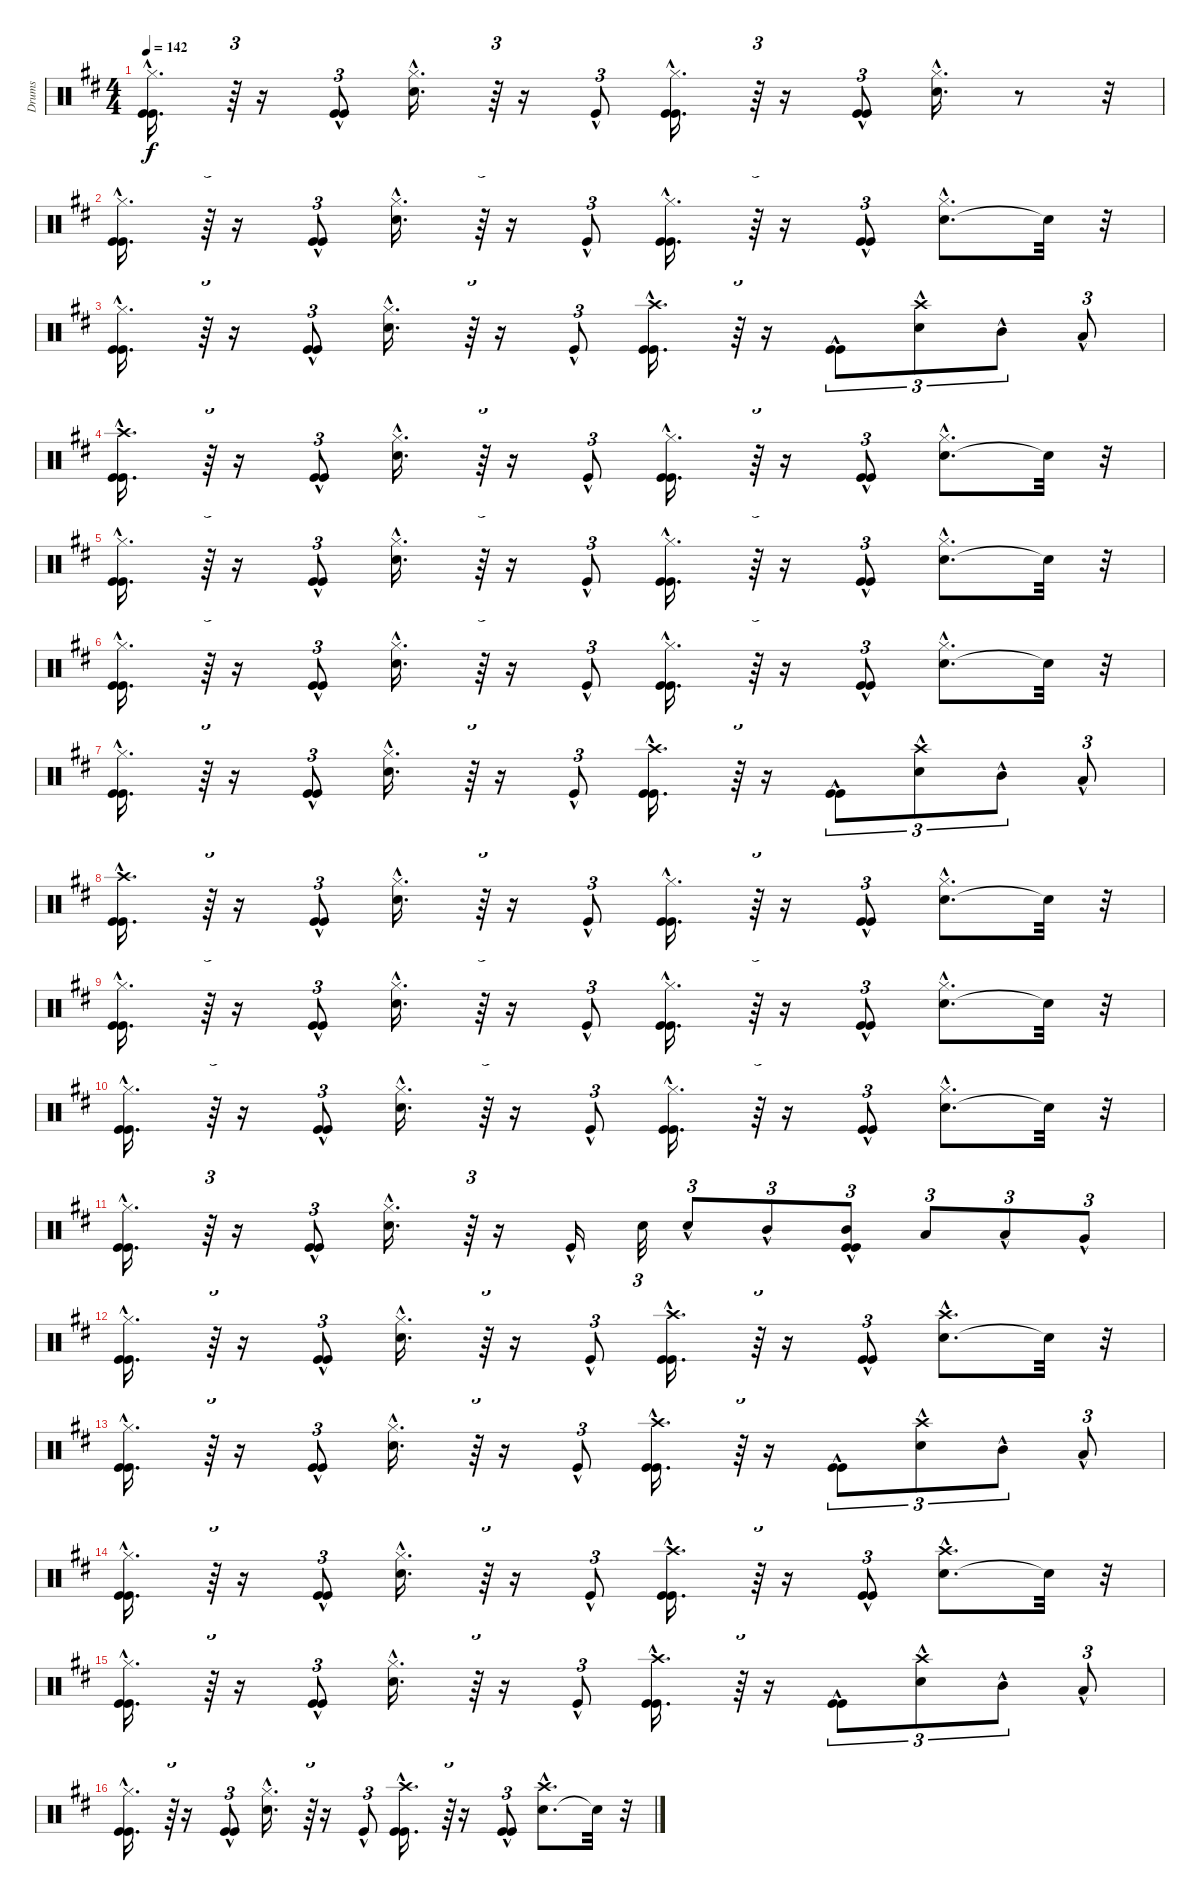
\track ("Drums" "Drums") {instrument percussion}
\staff {score}
\articulation defaults
\ts (4 4)
\tempo 142
\clef neutral
\ks bminor
("Kick (hit)"{hac} "Kick (hit)"{hac} "Hi-Hat (closed)"{hac}).16{d dy f} r.64{tu (3 2)} r.16 ("Kick (hit)"{hac} "Kick (hit)"{hac}).8{tu (3 2)} ("Snare (hit) 2"{hac} "Hi-Hat (closed)"{hac}).16{d} r.64{tu (3 2)} r.16 "Kick (hit)"{hac}.8{tu (3 2)} ("Kick (hit)"{hac} "Kick (hit)"{hac} "Hi-Hat (closed)"{hac}).16{d} r.64{tu (3 2)} r.16 ("Kick (hit)"{hac} "Kick (hit)"{hac}).8{tu (3 2)} ("Snare (hit) 2"{hac} "Hi-Hat (closed)"{hac}).16{d} r.8 r.32 |
("Kick (hit)"{hac} "Kick (hit)"{hac} "Hi-Hat (closed)"{hac}).16{d} r.64{tu (3 2)} r.16 ("Kick (hit)"{hac} "Kick (hit)"{hac}).8{tu (3 2)} ("Snare (hit) 2"{hac} "Hi-Hat (closed)"{hac}).16{d} r.64{tu (3 2)} r.16 "Kick (hit)"{hac}.8{tu (3 2)} ("Kick (hit)"{hac} "Kick (hit)"{hac} "Hi-Hat (closed)"{hac}).16{d} r.64{tu (3 2)} r.16 ("Kick (hit)"{hac} "Kick (hit)"{hac}).8{tu (3 2)} ("Snare (hit) 2"{hac} "Hi-Hat (closed)"{hac}).8{d} "Snare (hit)"{t}.32 r.32 |
("Kick (hit)"{hac} "Kick (hit)"{hac} "Hi-Hat (closed)"{hac}).16{d} r.64{tu (3 2)} r.16 ("Kick (hit)"{hac} "Kick (hit)"{hac}).8{tu (3 2)} ("Snare (hit) 2"{hac} "Hi-Hat (closed)"{hac}).16{d} r.64{tu (3 2)} r.16 "Kick (hit)"{hac}.8{tu (3 2)} ("Kick (hit)"{hac} "Kick (hit)"{hac} "Crash high (hit)"{hac}).16{d} r.64{tu (3 2)} r.16 ("Kick (hit)"{hac} "Kick (hit)"{hac}).8{tu (3 2)} ("Snare (hit) 2"{hac} "Crash high (hit)"{hac}).8{tu (3 2)} "Mid Tom (hit)"{hac}.8{tu (3 2)} "Low Tom (hit)"{hac}.8{tu (3 2)} |
("Kick (hit)"{hac} "Kick (hit)"{hac} "Crash high (hit)"{hac}).16{d} r.64{tu (3 2)} r.16 ("Kick (hit)"{hac} "Kick (hit)"{hac}).8{tu (3 2)} ("Snare (hit) 2"{hac} "Hi-Hat (closed)"{hac}).16{d} r.64{tu (3 2)} r.16 "Kick (hit)"{hac}.8{tu (3 2)} ("Kick (hit)"{hac} "Kick (hit)"{hac} "Hi-Hat (closed)"{hac}).16{d} r.64{tu (3 2)} r.16 ("Kick (hit)"{hac} "Kick (hit)"{hac}).8{tu (3 2)} ("Snare (hit) 2"{hac} "Hi-Hat (closed)"{hac}).8{d} "Snare (hit)"{t}.32 r.32 |
("Kick (hit)"{hac} "Kick (hit)"{hac} "Hi-Hat (closed)"{hac}).16{d} r.64{tu (3 2)} r.16 ("Kick (hit)"{hac} "Kick (hit)"{hac}).8{tu (3 2)} ("Snare (hit) 2"{hac} "Hi-Hat (closed)"{hac}).16{d} r.64{tu (3 2)} r.16 "Kick (hit)"{hac}.8{tu (3 2)} ("Kick (hit)"{hac} "Kick (hit)"{hac} "Hi-Hat (closed)"{hac}).16{d} r.64{tu (3 2)} r.16 ("Kick (hit)"{hac} "Kick (hit)"{hac}).8{tu (3 2)} ("Snare (hit) 2"{hac} "Hi-Hat (closed)"{hac}).8{d} "Snare (hit)"{t}.32 r.32 |
("Kick (hit)"{hac} "Kick (hit)"{hac} "Hi-Hat (closed)"{hac}).16{d} r.64{tu (3 2)} r.16 ("Kick (hit)"{hac} "Kick (hit)"{hac}).8{tu (3 2)} ("Snare (hit) 2"{hac} "Hi-Hat (closed)"{hac}).16{d} r.64{tu (3 2)} r.16 "Kick (hit)"{hac}.8{tu (3 2)} ("Kick (hit)"{hac} "Kick (hit)"{hac} "Hi-Hat (closed)"{hac}).16{d} r.64{tu (3 2)} r.16 ("Kick (hit)"{hac} "Kick (hit)"{hac}).8{tu (3 2)} ("Snare (hit) 2"{hac} "Hi-Hat (closed)"{hac}).8{d} "Snare (hit)"{t}.32 r.32 |
("Kick (hit)"{hac} "Kick (hit)"{hac} "Hi-Hat (closed)"{hac}).16{d} r.64{tu (3 2)} r.16 ("Kick (hit)"{hac} "Kick (hit)"{hac}).8{tu (3 2)} ("Snare (hit) 2"{hac} "Hi-Hat (closed)"{hac}).16{d} r.64{tu (3 2)} r.16 "Kick (hit)"{hac}.8{tu (3 2)} ("Kick (hit)"{hac} "Kick (hit)"{hac} "Crash high (hit)"{hac}).16{d} r.64{tu (3 2)} r.16 ("Kick (hit)"{hac} "Kick (hit)"{hac}).8{tu (3 2)} ("Snare (hit) 2"{hac} "Crash high (hit)"{hac}).8{tu (3 2)} "Mid Tom (hit)"{hac}.8{tu (3 2)} "Low Tom (hit)"{hac}.8{tu (3 2)} |
("Kick (hit)"{hac} "Kick (hit)"{hac} "Crash high (hit)"{hac}).16{d} r.64{tu (3 2)} r.16 ("Kick (hit)"{hac} "Kick (hit)"{hac}).8{tu (3 2)} ("Snare (hit) 2"{hac} "Hi-Hat (closed)"{hac}).16{d} r.64{tu (3 2)} r.16 "Kick (hit)"{hac}.8{tu (3 2)} ("Kick (hit)"{hac} "Kick (hit)"{hac} "Hi-Hat (closed)"{hac}).16{d} r.64{tu (3 2)} r.16 ("Kick (hit)"{hac} "Kick (hit)"{hac}).8{tu (3 2)} ("Snare (hit) 2"{hac} "Hi-Hat (closed)"{hac}).8{d} "Snare (hit)"{t}.32 r.32 |
("Kick (hit)"{hac} "Kick (hit)"{hac} "Hi-Hat (closed)"{hac}).16{d} r.64{tu (3 2)} r.16 ("Kick (hit)"{hac} "Kick (hit)"{hac}).8{tu (3 2)} ("Snare (hit) 2"{hac} "Hi-Hat (closed)"{hac}).16{d} r.64{tu (3 2)} r.16 "Kick (hit)"{hac}.8{tu (3 2)} ("Kick (hit)"{hac} "Kick (hit)"{hac} "Hi-Hat (closed)"{hac}).16{d} r.64{tu (3 2)} r.16 ("Kick (hit)"{hac} "Kick (hit)"{hac}).8{tu (3 2)} ("Snare (hit) 2"{hac} "Hi-Hat (closed)"{hac}).8{d} "Snare (hit)"{t}.32 r.32 |
("Kick (hit)"{hac} "Kick (hit)"{hac} "Hi-Hat (closed)"{hac}).16{d} r.64{tu (3 2)} r.16 ("Kick (hit)"{hac} "Kick (hit)"{hac}).8{tu (3 2)} ("Snare (hit) 2"{hac} "Hi-Hat (closed)"{hac}).16{d} r.64{tu (3 2)} r.16 "Kick (hit)"{hac}.8{tu (3 2)} ("Kick (hit)"{hac} "Kick (hit)"{hac} "Hi-Hat (closed)"{hac}).16{d} r.64{tu (3 2)} r.16 ("Kick (hit)"{hac} "Kick (hit)"{hac}).8{tu (3 2)} ("Snare (hit) 2"{hac} "Hi-Hat (closed)"{hac}).8{d} "Snare (hit)"{t}.32 r.32 |
("Kick (hit)"{hac} "Kick (hit)"{hac} "Hi-Hat (closed)"{hac}).16{d} r.64{tu (3 2)} r.16 ("Kick (hit)"{hac} "Kick (hit)"{hac}).8{tu (3 2)} ("Snare (hit) 2"{hac} "Hi-Hat (closed)"{hac}).16{d} r.64{tu (3 2)} r.16 "Kick (hit)"{hac}.16 "Snare (hit) 2".32{tu (3 2)} "Snare (hit) 2"{hac}.8{tu (3 2)} "Mid Tom (hit)"{hac}.8{tu (3 2)} ("Kick (hit)"{hac} "Kick (hit)"{hac} "Mid Tom (hit)"{hac}).8{tu (3 2)} "Low Tom (hit)".8{tu (3 2)} "Low Tom (hit)"{hac}.8{tu (3 2)} "Very Low Tom (hit)"{hac}.8{tu (3 2)} |
("Kick (hit)"{hac} "Kick (hit)"{hac} "Hi-Hat (closed)"{hac}).16{d} r.64{tu (3 2)} r.16 ("Kick (hit)"{hac} "Kick (hit)"{hac}).8{tu (3 2)} ("Snare (hit) 2"{hac} "Hi-Hat (closed)"{hac}).16{d} r.64{tu (3 2)} r.16 "Kick (hit)"{hac}.8{tu (3 2)} ("Kick (hit)"{hac} "Kick (hit)"{hac} "Crash high (hit)"{hac}).16{d} r.64{tu (3 2)} r.16 ("Kick (hit)"{hac} "Kick (hit)"{hac}).8{tu (3 2)} ("Snare (hit) 2"{hac} "Crash high (hit)"{hac}).8{d} "Snare (hit)"{t}.32 r.32 |
("Kick (hit)"{hac} "Kick (hit)"{hac} "Hi-Hat (closed)"{hac}).16{d} r.64{tu (3 2)} r.16 ("Kick (hit)"{hac} "Kick (hit)"{hac}).8{tu (3 2)} ("Snare (hit) 2"{hac} "Hi-Hat (closed)"{hac}).16{d} r.64{tu (3 2)} r.16 "Kick (hit)"{hac}.8{tu (3 2)} ("Kick (hit)"{hac} "Kick (hit)"{hac} "Crash high (hit)"{hac}).16{d} r.64{tu (3 2)} r.16 ("Kick (hit)"{hac} "Kick (hit)"{hac}).8{tu (3 2)} ("Snare (hit) 2"{hac} "Crash high (hit)"{hac}).8{tu (3 2)} "Mid Tom (hit)"{hac}.8{tu (3 2)} "Low Tom (hit)"{hac}.8{tu (3 2)} |
("Kick (hit)"{hac} "Kick (hit)"{hac} "Hi-Hat (closed)"{hac}).16{d} r.64{tu (3 2)} r.16 ("Kick (hit)"{hac} "Kick (hit)"{hac}).8{tu (3 2)} ("Snare (hit) 2"{hac} "Hi-Hat (closed)"{hac}).16{d} r.64{tu (3 2)} r.16 "Kick (hit)"{hac}.8{tu (3 2)} ("Kick (hit)"{hac} "Kick (hit)"{hac} "Crash high (hit)"{hac}).16{d} r.64{tu (3 2)} r.16 ("Kick (hit)"{hac} "Kick (hit)"{hac}).8{tu (3 2)} ("Snare (hit) 2"{hac} "Crash high (hit)"{hac}).8{d} "Snare (hit)"{t}.32 r.32 |
("Kick (hit)"{hac} "Kick (hit)"{hac} "Hi-Hat (closed)"{hac}).16{d} r.64{tu (3 2)} r.16 ("Kick (hit)"{hac} "Kick (hit)"{hac}).8{tu (3 2)} ("Snare (hit) 2"{hac} "Hi-Hat (closed)"{hac}).16{d} r.64{tu (3 2)} r.16 "Kick (hit)"{hac}.8{tu (3 2)} ("Kick (hit)"{hac} "Kick (hit)"{hac} "Crash high (hit)"{hac}).16{d} r.64{tu (3 2)} r.16 ("Kick (hit)"{hac} "Kick (hit)"{hac}).8{tu (3 2)} ("Snare (hit) 2"{hac} "Crash high (hit)"{hac}).8{tu (3 2)} "Mid Tom (hit)"{hac}.8{tu (3 2)} "Low Tom (hit)"{hac}.8{tu (3 2)} |
("Kick (hit)"{hac} "Kick (hit)"{hac} "Hi-Hat (closed)"{hac}).16{d} r.64{tu (3 2)} r.16 ("Kick (hit)"{hac} "Kick (hit)"{hac}).8{tu (3 2)} ("Snare (hit) 2"{hac} "Hi-Hat (closed)"{hac}).16{d} r.64{tu (3 2)} r.16 "Kick (hit)"{hac}.8{tu (3 2)} ("Kick (hit)"{hac} "Kick (hit)"{hac} "Crash high (hit)"{hac}).16{d} r.64{tu (3 2)} r.16 ("Kick (hit)"{hac} "Kick (hit)"{hac}).8{tu (3 2)} ("Snare (hit) 2"{hac} "Crash high (hit)"{hac}).8{d} "Snare (hit)"{t}.32 r.32
